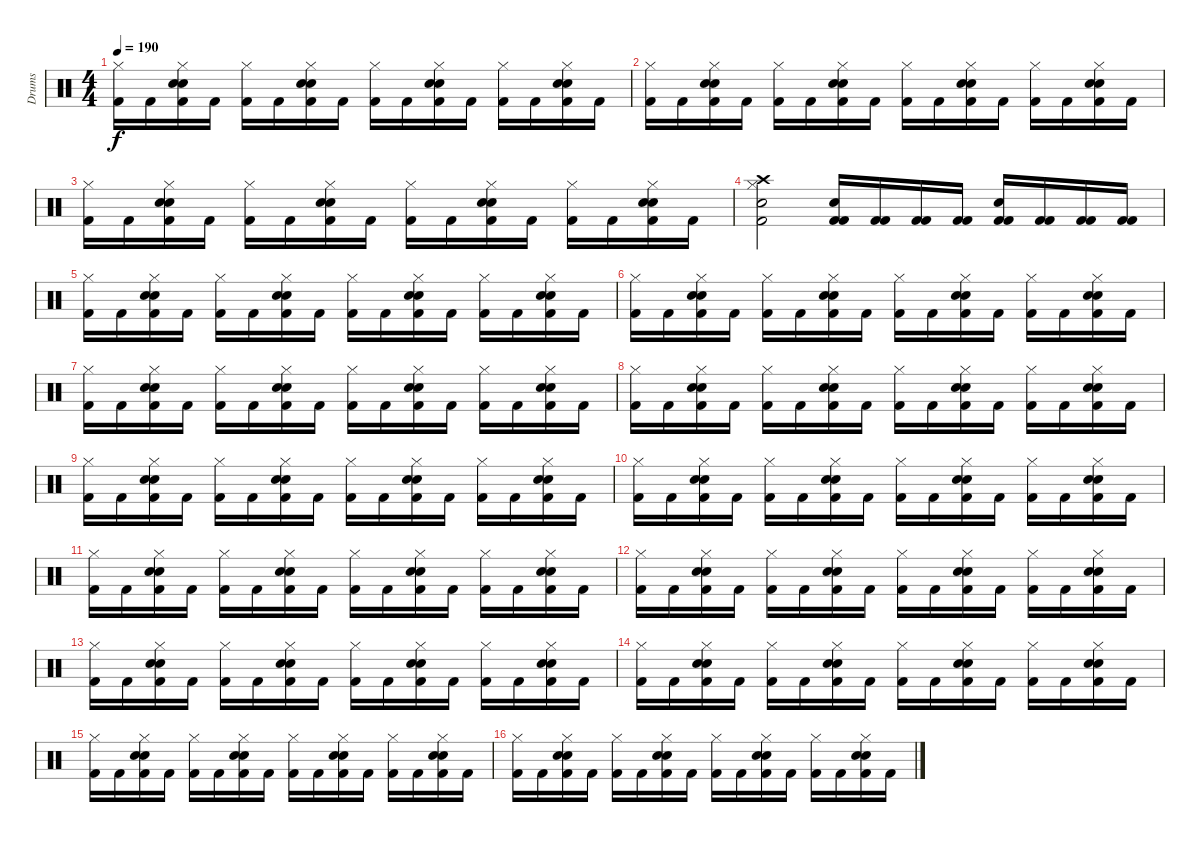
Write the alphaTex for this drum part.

\track ("Drums" "Drums") {instrument percussion}
\staff {score}
\articulation defaults
\ts (4 4)
\tempo 190
\clef neutral
\ks c
("Hi-Hat (closed)" "Kick (hit) 2").16{dy f} "Kick (hit) 2".16 ("Snare (hit) 2" "Hi-Hat (closed)" "Snare (hit) 2" "Kick (hit) 2").16 "Kick (hit) 2".16 ("Hi-Hat (closed)" "Kick (hit) 2").16 "Kick (hit) 2".16 ("Snare (hit) 2" "Hi-Hat (closed)" "Snare (hit) 2" "Kick (hit) 2").16 "Kick (hit) 2".16 ("Hi-Hat (closed)" "Kick (hit) 2").16 "Kick (hit) 2".16 ("Snare (hit) 2" "Hi-Hat (closed)" "Snare (hit) 2" "Kick (hit) 2").16 "Kick (hit) 2".16 ("Hi-Hat (closed)" "Kick (hit) 2").16 "Kick (hit) 2".16 ("Snare (hit) 2" "Hi-Hat (closed)" "Snare (hit) 2" "Kick (hit) 2").16 "Kick (hit) 2".16 |
("Hi-Hat (closed)" "Kick (hit) 2").16 "Kick (hit) 2".16 ("Snare (hit) 2" "Hi-Hat (closed)" "Snare (hit) 2" "Kick (hit) 2").16 "Kick (hit) 2".16 ("Hi-Hat (closed)" "Kick (hit) 2").16 "Kick (hit) 2".16 ("Snare (hit) 2" "Hi-Hat (closed)" "Snare (hit) 2" "Kick (hit) 2").16 "Kick (hit) 2".16 ("Hi-Hat (closed)" "Kick (hit) 2").16 "Kick (hit) 2".16 ("Snare (hit) 2" "Hi-Hat (closed)" "Snare (hit) 2" "Kick (hit) 2").16 "Kick (hit) 2".16 ("Hi-Hat (closed)" "Kick (hit) 2").16 "Kick (hit) 2".16 ("Snare (hit) 2" "Hi-Hat (closed)" "Snare (hit) 2" "Kick (hit) 2").16 "Kick (hit) 2".16 |
("Hi-Hat (closed)" "Kick (hit) 2").16 "Kick (hit) 2".16 ("Snare (hit) 2" "Hi-Hat (closed)" "Snare (hit) 2" "Kick (hit) 2").16 "Kick (hit) 2".16 ("Hi-Hat (closed)" "Kick (hit) 2").16 "Kick (hit) 2".16 ("Snare (hit) 2" "Hi-Hat (closed)" "Snare (hit) 2" "Kick (hit) 2").16 "Kick (hit) 2".16 ("Hi-Hat (closed)" "Kick (hit) 2").16 "Kick (hit) 2".16 ("Snare (hit) 2" "Hi-Hat (closed)" "Snare (hit) 2" "Kick (hit) 2").16 "Kick (hit) 2".16 ("Hi-Hat (closed)" "Kick (hit) 2").16 "Kick (hit) 2".16 ("Snare (hit) 2" "Hi-Hat (closed)" "Snare (hit) 2" "Kick (hit) 2").16 "Kick (hit) 2".16 |
("Crash high (hit)" "Hi-Hat (closed)" "Snare (hit) 2" "Kick (hit) 2").2 ("Kick (hit) 2" "Snare (hit) 2" "Kick (hit) 2").16 ("Kick (hit) 2" "Kick (hit) 2").16 ("Kick (hit) 2" "Kick (hit) 2").16 ("Kick (hit) 2" "Kick (hit) 2").16 ("Kick (hit) 2" "Snare (hit) 2" "Kick (hit) 2").16 ("Kick (hit) 2" "Kick (hit) 2").16 ("Kick (hit) 2" "Kick (hit) 2").16 ("Kick (hit) 2" "Kick (hit) 2").16 |
("Hi-Hat (closed)" "Kick (hit) 2").16 "Kick (hit) 2".16 ("Snare (hit) 2" "Hi-Hat (closed)" "Snare (hit) 2" "Kick (hit) 2").16 "Kick (hit) 2".16 ("Hi-Hat (closed)" "Kick (hit) 2").16 "Kick (hit) 2".16 ("Snare (hit) 2" "Hi-Hat (closed)" "Snare (hit) 2" "Kick (hit) 2").16 "Kick (hit) 2".16 ("Hi-Hat (closed)" "Kick (hit) 2").16 "Kick (hit) 2".16 ("Snare (hit) 2" "Hi-Hat (closed)" "Snare (hit) 2" "Kick (hit) 2").16 "Kick (hit) 2".16 ("Hi-Hat (closed)" "Kick (hit) 2").16 "Kick (hit) 2".16 ("Snare (hit) 2" "Hi-Hat (closed)" "Snare (hit) 2" "Kick (hit) 2").16 "Kick (hit) 2".16 |
("Hi-Hat (closed)" "Kick (hit) 2").16 "Kick (hit) 2".16 ("Snare (hit) 2" "Hi-Hat (closed)" "Snare (hit) 2" "Kick (hit) 2").16 "Kick (hit) 2".16 ("Hi-Hat (closed)" "Kick (hit) 2").16 "Kick (hit) 2".16 ("Snare (hit) 2" "Hi-Hat (closed)" "Snare (hit) 2" "Kick (hit) 2").16 "Kick (hit) 2".16 ("Hi-Hat (closed)" "Kick (hit) 2").16 "Kick (hit) 2".16 ("Snare (hit) 2" "Hi-Hat (closed)" "Snare (hit) 2" "Kick (hit) 2").16 "Kick (hit) 2".16 ("Hi-Hat (closed)" "Kick (hit) 2").16 "Kick (hit) 2".16 ("Snare (hit) 2" "Hi-Hat (closed)" "Snare (hit) 2" "Kick (hit) 2").16 "Kick (hit) 2".16 |
("Hi-Hat (closed)" "Kick (hit) 2").16 "Kick (hit) 2".16 ("Snare (hit) 2" "Hi-Hat (closed)" "Snare (hit) 2" "Kick (hit) 2").16 "Kick (hit) 2".16 ("Hi-Hat (closed)" "Kick (hit) 2").16 "Kick (hit) 2".16 ("Snare (hit) 2" "Hi-Hat (closed)" "Snare (hit) 2" "Kick (hit) 2").16 "Kick (hit) 2".16 ("Hi-Hat (closed)" "Kick (hit) 2").16 "Kick (hit) 2".16 ("Snare (hit) 2" "Hi-Hat (closed)" "Snare (hit) 2" "Kick (hit) 2").16 "Kick (hit) 2".16 ("Hi-Hat (closed)" "Kick (hit) 2").16 "Kick (hit) 2".16 ("Snare (hit) 2" "Hi-Hat (closed)" "Snare (hit) 2" "Kick (hit) 2").16 "Kick (hit) 2".16 |
("Hi-Hat (closed)" "Kick (hit) 2").16 "Kick (hit) 2".16 ("Snare (hit) 2" "Hi-Hat (closed)" "Snare (hit) 2" "Kick (hit) 2").16 "Kick (hit) 2".16 ("Hi-Hat (closed)" "Kick (hit) 2").16 "Kick (hit) 2".16 ("Snare (hit) 2" "Hi-Hat (closed)" "Snare (hit) 2" "Kick (hit) 2").16 "Kick (hit) 2".16 ("Hi-Hat (closed)" "Kick (hit) 2").16 "Kick (hit) 2".16 ("Snare (hit) 2" "Hi-Hat (closed)" "Snare (hit) 2" "Kick (hit) 2").16 "Kick (hit) 2".16 ("Hi-Hat (closed)" "Kick (hit) 2").16 "Kick (hit) 2".16 ("Snare (hit) 2" "Hi-Hat (closed)" "Snare (hit) 2" "Kick (hit) 2").16 "Kick (hit) 2".16 |
("Hi-Hat (closed)" "Kick (hit) 2").16 "Kick (hit) 2".16 ("Snare (hit) 2" "Hi-Hat (closed)" "Snare (hit) 2" "Kick (hit) 2").16 "Kick (hit) 2".16 ("Hi-Hat (closed)" "Kick (hit) 2").16 "Kick (hit) 2".16 ("Snare (hit) 2" "Hi-Hat (closed)" "Snare (hit) 2" "Kick (hit) 2").16 "Kick (hit) 2".16 ("Hi-Hat (closed)" "Kick (hit) 2").16 "Kick (hit) 2".16 ("Snare (hit) 2" "Hi-Hat (closed)" "Snare (hit) 2" "Kick (hit) 2").16 "Kick (hit) 2".16 ("Hi-Hat (closed)" "Kick (hit) 2").16 "Kick (hit) 2".16 ("Snare (hit) 2" "Hi-Hat (closed)" "Snare (hit) 2" "Kick (hit) 2").16 "Kick (hit) 2".16 |
("Hi-Hat (closed)" "Kick (hit) 2").16 "Kick (hit) 2".16 ("Snare (hit) 2" "Hi-Hat (closed)" "Snare (hit) 2" "Kick (hit) 2").16 "Kick (hit) 2".16 ("Hi-Hat (closed)" "Kick (hit) 2").16 "Kick (hit) 2".16 ("Snare (hit) 2" "Hi-Hat (closed)" "Snare (hit) 2" "Kick (hit) 2").16 "Kick (hit) 2".16 ("Hi-Hat (closed)" "Kick (hit) 2").16 "Kick (hit) 2".16 ("Snare (hit) 2" "Hi-Hat (closed)" "Snare (hit) 2" "Kick (hit) 2").16 "Kick (hit) 2".16 ("Hi-Hat (closed)" "Kick (hit) 2").16 "Kick (hit) 2".16 ("Snare (hit) 2" "Hi-Hat (closed)" "Snare (hit) 2" "Kick (hit) 2").16 "Kick (hit) 2".16 |
("Hi-Hat (closed)" "Kick (hit) 2").16 "Kick (hit) 2".16 ("Snare (hit) 2" "Hi-Hat (closed)" "Snare (hit) 2" "Kick (hit) 2").16 "Kick (hit) 2".16 ("Hi-Hat (closed)" "Kick (hit) 2").16 "Kick (hit) 2".16 ("Snare (hit) 2" "Hi-Hat (closed)" "Snare (hit) 2" "Kick (hit) 2").16 "Kick (hit) 2".16 ("Hi-Hat (closed)" "Kick (hit) 2").16 "Kick (hit) 2".16 ("Snare (hit) 2" "Hi-Hat (closed)" "Snare (hit) 2" "Kick (hit) 2").16 "Kick (hit) 2".16 ("Hi-Hat (closed)" "Kick (hit) 2").16 "Kick (hit) 2".16 ("Snare (hit) 2" "Hi-Hat (closed)" "Snare (hit) 2" "Kick (hit) 2").16 "Kick (hit) 2".16 |
("Hi-Hat (closed)" "Kick (hit) 2").16 "Kick (hit) 2".16 ("Snare (hit) 2" "Hi-Hat (closed)" "Snare (hit) 2" "Kick (hit) 2").16 "Kick (hit) 2".16 ("Hi-Hat (closed)" "Kick (hit) 2").16 "Kick (hit) 2".16 ("Snare (hit) 2" "Hi-Hat (closed)" "Snare (hit) 2" "Kick (hit) 2").16 "Kick (hit) 2".16 ("Hi-Hat (closed)" "Kick (hit) 2").16 "Kick (hit) 2".16 ("Snare (hit) 2" "Hi-Hat (closed)" "Snare (hit) 2" "Kick (hit) 2").16 "Kick (hit) 2".16 ("Hi-Hat (closed)" "Kick (hit) 2").16 "Kick (hit) 2".16 ("Snare (hit) 2" "Hi-Hat (closed)" "Snare (hit) 2" "Kick (hit) 2").16 "Kick (hit) 2".16 |
("Hi-Hat (closed)" "Kick (hit) 2").16 "Kick (hit) 2".16 ("Snare (hit) 2" "Hi-Hat (closed)" "Snare (hit) 2" "Kick (hit) 2").16 "Kick (hit) 2".16 ("Hi-Hat (closed)" "Kick (hit) 2").16 "Kick (hit) 2".16 ("Snare (hit) 2" "Hi-Hat (closed)" "Snare (hit) 2" "Kick (hit) 2").16 "Kick (hit) 2".16 ("Hi-Hat (closed)" "Kick (hit) 2").16 "Kick (hit) 2".16 ("Snare (hit) 2" "Hi-Hat (closed)" "Snare (hit) 2" "Kick (hit) 2").16 "Kick (hit) 2".16 ("Hi-Hat (closed)" "Kick (hit) 2").16 "Kick (hit) 2".16 ("Snare (hit) 2" "Hi-Hat (closed)" "Snare (hit) 2" "Kick (hit) 2").16 "Kick (hit) 2".16 |
("Hi-Hat (closed)" "Kick (hit) 2").16 "Kick (hit) 2".16 ("Snare (hit) 2" "Hi-Hat (closed)" "Snare (hit) 2" "Kick (hit) 2").16 "Kick (hit) 2".16 ("Hi-Hat (closed)" "Kick (hit) 2").16 "Kick (hit) 2".16 ("Snare (hit) 2" "Hi-Hat (closed)" "Snare (hit) 2" "Kick (hit) 2").16 "Kick (hit) 2".16 ("Hi-Hat (closed)" "Kick (hit) 2").16 "Kick (hit) 2".16 ("Snare (hit) 2" "Hi-Hat (closed)" "Snare (hit) 2" "Kick (hit) 2").16 "Kick (hit) 2".16 ("Hi-Hat (closed)" "Kick (hit) 2").16 "Kick (hit) 2".16 ("Snare (hit) 2" "Hi-Hat (closed)" "Snare (hit) 2" "Kick (hit) 2").16 "Kick (hit) 2".16 |
("Hi-Hat (closed)" "Kick (hit) 2").16 "Kick (hit) 2".16 ("Snare (hit) 2" "Hi-Hat (closed)" "Snare (hit) 2" "Kick (hit) 2").16 "Kick (hit) 2".16 ("Hi-Hat (closed)" "Kick (hit) 2").16 "Kick (hit) 2".16 ("Snare (hit) 2" "Hi-Hat (closed)" "Snare (hit) 2" "Kick (hit) 2").16 "Kick (hit) 2".16 ("Hi-Hat (closed)" "Kick (hit) 2").16 "Kick (hit) 2".16 ("Snare (hit) 2" "Hi-Hat (closed)" "Snare (hit) 2" "Kick (hit) 2").16 "Kick (hit) 2".16 ("Hi-Hat (closed)" "Kick (hit) 2").16 "Kick (hit) 2".16 ("Snare (hit) 2" "Hi-Hat (closed)" "Snare (hit) 2" "Kick (hit) 2").16 "Kick (hit) 2".16 |
("Hi-Hat (closed)" "Kick (hit) 2").16 "Kick (hit) 2".16 ("Snare (hit) 2" "Hi-Hat (closed)" "Snare (hit) 2" "Kick (hit) 2").16 "Kick (hit) 2".16 ("Hi-Hat (closed)" "Kick (hit) 2").16 "Kick (hit) 2".16 ("Snare (hit) 2" "Hi-Hat (closed)" "Snare (hit) 2" "Kick (hit) 2").16 "Kick (hit) 2".16 ("Hi-Hat (closed)" "Kick (hit) 2").16 "Kick (hit) 2".16 ("Snare (hit) 2" "Hi-Hat (closed)" "Snare (hit) 2" "Kick (hit) 2").16 "Kick (hit) 2".16 ("Hi-Hat (closed)" "Kick (hit) 2").16 "Kick (hit) 2".16 ("Snare (hit) 2" "Hi-Hat (closed)" "Snare (hit) 2" "Kick (hit) 2").16 "Kick (hit) 2".16
